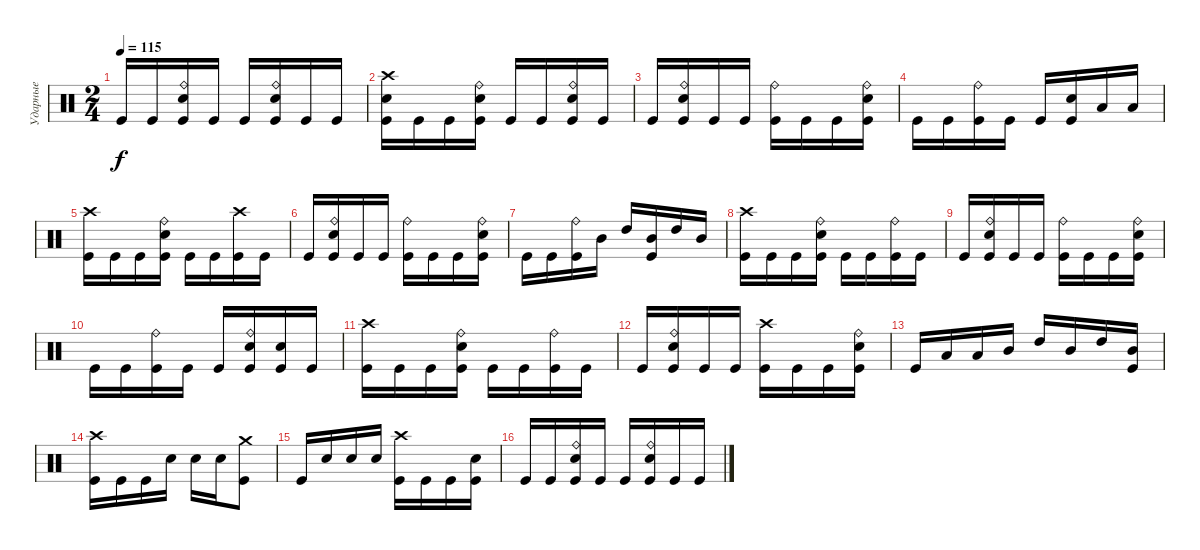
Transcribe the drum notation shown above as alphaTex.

\track ("Ударные" "Ударные") {instrument percussion}
\staff {score}
\articulation defaults
\ts (2 4)
\tempo 115
\clef neutral
\ks c "Kick (hit)".16{dy f} "Kick (hit)".16
("Ride (bell)" "Electric Snare (hit)" "Kick (hit)").16 "Kick (hit)".16 "Kick (hit)".16 ("Ride (bell)" "Electric Snare (hit)" "Kick (hit)").16 "Kick (hit)".16 "Kick (hit)".16 |
("Crash high (hit)" "Electric Snare (hit)" "Kick (hit)").16 "Kick (hit)".16 "Kick (hit)".16 ("Ride (bell)" "Electric Snare (hit)" "Kick (hit)").16 "Kick (hit)".16 "Kick (hit)".16 ("Ride (bell)" "Electric Snare (hit)" "Kick (hit)").16 "Kick (hit)".16 |
"Kick (hit)".16 ("Ride (bell)" "Electric Snare (hit)" "Kick (hit)").16 "Kick (hit)".16 "Kick (hit)".16 ("Ride (bell)" "Kick (hit)").16 "Kick (hit)".16 "Kick (hit)".16 ("Ride (bell)" "Electric Snare (hit)" "Kick (hit)").16 |
"Kick (hit)".16 "Kick (hit)".16 ("Ride (bell)" "Kick (hit)").16 "Kick (hit)".16 "Kick (hit)".16 ("Electric Snare (hit)" "Kick (hit)").16 "Low Tom (hit)".16 "Low Tom (hit)".16 |
("Crash high (hit)" "Kick (hit)").16 "Kick (hit)".16 "Kick (hit)".16 ("Ride (bell)" "Electric Snare (hit)" "Kick (hit)").16 "Kick (hit)".16 "Kick (hit)".16 ("Crash high (hit)" "Kick (hit)").16 "Kick (hit)".16 |
"Kick (hit)".16 ("Ride (bell)" "Electric Snare (hit)" "Kick (hit)").16 "Kick (hit)".16 "Kick (hit)".16 ("Ride (bell)" "Kick (hit)").16 "Kick (hit)".16 "Kick (hit)".16 ("Ride (bell)" "Electric Snare (hit)" "Kick (hit)").16 |
"Kick (hit)".16 "Kick (hit)".16 ("Ride (bell)" "Kick (hit)").16 "Mid Tom (hit)".16 "High Tom (hit)".16 ("Mid Tom (hit)" "Kick (hit)").16 "High Tom (hit)".16 "Mid Tom (hit)".16 |
("Crash high (hit)" "Kick (hit)").16 "Kick (hit)".16 "Kick (hit)".16 ("Ride (bell)" "Electric Snare (hit)" "Kick (hit)").16 "Kick (hit)".16 "Kick (hit)".16 ("Ride (bell)" "Kick (hit)").16 "Kick (hit)".16 |
"Kick (hit)".16 ("Ride (bell)" "Electric Snare (hit)" "Kick (hit)").16 "Kick (hit)".16 "Kick (hit)".16 ("Ride (bell)" "Kick (hit)").16 "Kick (hit)".16 "Kick (hit)".16 ("Ride (bell)" "Electric Snare (hit)" "Kick (hit)").16 |
"Kick (hit)".16 "Kick (hit)".16 ("Ride (bell)" "Kick (hit)").16 "Kick (hit)".16 "Kick (hit)".16 ("Ride (bell)" "Electric Snare (hit)" "Kick (hit)").16 ("Electric Snare (hit)" "Kick (hit)").16 "Kick (hit)".16 |
("Crash high (hit)" "Kick (hit)").16 "Kick (hit)".16 "Kick (hit)".16 ("Ride (bell)" "Electric Snare (hit)" "Kick (hit)").16 "Kick (hit)".16 "Kick (hit)".16 ("Ride (bell)" "Kick (hit)").16 "Kick (hit)".16 |
"Kick (hit)".16 ("Ride (bell)" "Electric Snare (hit)" "Kick (hit)").16 "Kick (hit)".16 "Kick (hit)".16 ("Crash high (hit)" "Kick (hit)").16 "Kick (hit)".16 "Kick (hit)".16 ("Ride (bell)" "Electric Snare (hit)" "Kick (hit)").16 |
"Kick (hit)".16 "Low Tom (hit)".16 "Low Tom (hit)".16 "Mid Tom (hit)".16 "High Tom (hit)".16 "Mid Tom (hit)".16 "High Tom (hit)".16 ("Mid Tom (hit)" "Kick (hit)").16 |
("Crash high (hit)" "Kick (hit)").16 "Kick (hit)".16 "Kick (hit)".16 "Electric Snare (hit)".16 "Electric Snare (hit)".16 "Electric Snare (hit)".16 ("Crash medium (hit)" "Kick (hit)").8 |
"Kick (hit)".16 "Electric Snare (hit)".16 "Electric Snare (hit)".16 "Electric Snare (hit)".16 ("Crash high (hit)" "Kick (hit)").16 "Kick (hit)".16 "Kick (hit)".16 ("Electric Snare (hit)" "Kick (hit)").16 |
"Kick (hit)".16 "Kick (hit)".16 ("Ride (bell)" "Electric Snare (hit)" "Kick (hit)").16 "Kick (hit)".16 "Kick (hit)".16 ("Ride (bell)" "Electric Snare (hit)" "Kick (hit)").16 "Kick (hit)".16 "Kick (hit)".16
